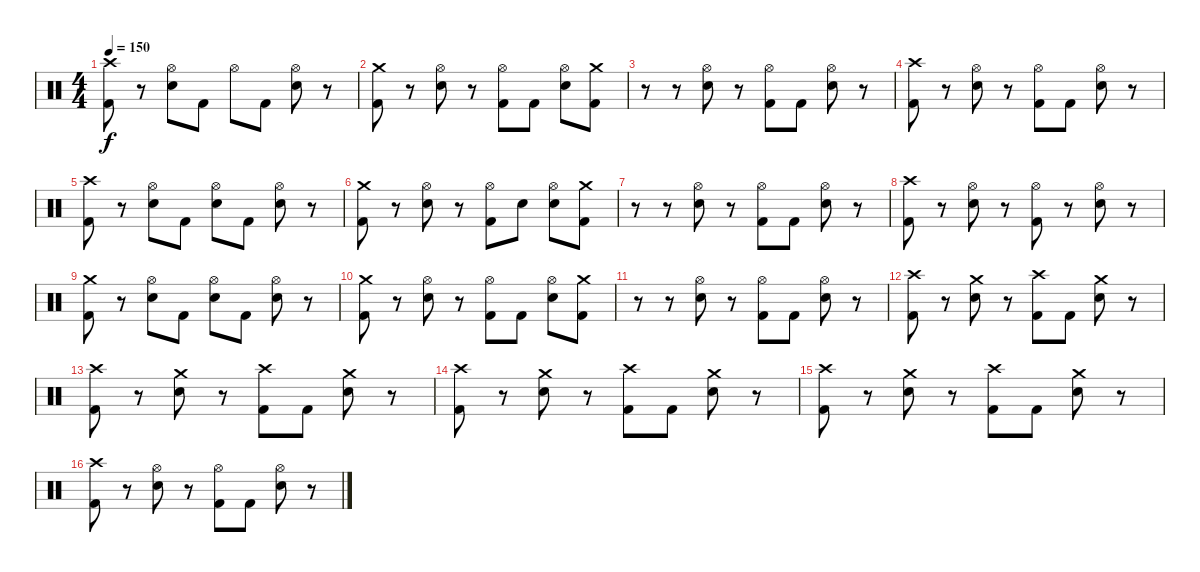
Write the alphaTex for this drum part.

\track "" {instrument percussion}
\staff {score}
\articulation defaults
\ts (4 4)
\tempo 150
\clef neutral
\ks c
("Crash high (hit)" "Kick (hit) 2").8{dy f} r.8 ("Hi-Hat (open)" "Electric Snare (hit)").8 "Kick (hit) 2".8 "Hi-Hat (open)".8 "Kick (hit) 2".8 ("Hi-Hat (open)" "Electric Snare (hit)").8 r.8 |
("Crash medium (hit)" "Kick (hit) 2").8 r.8 ("Hi-Hat (open)" "Electric Snare (hit)").8 r.8 ("Hi-Hat (open)" "Kick (hit) 2").8 "Kick (hit) 2".8 ("Hi-Hat (open)" "Electric Snare (hit)").8 ("Crash medium (hit)" "Kick (hit) 2").8 |
r.8 r.8 ("Hi-Hat (open)" "Electric Snare (hit)").8 r.8 ("Hi-Hat (open)" "Kick (hit) 2").8 "Kick (hit) 2".8 ("Hi-Hat (open)" "Electric Snare (hit)").8 r.8 |
("Crash high (hit)" "Kick (hit) 2").8 r.8 ("Hi-Hat (open)" "Electric Snare (hit)").8 r.8 ("Hi-Hat (open)" "Kick (hit) 2").8 "Kick (hit) 2".8 ("Hi-Hat (open)" "Electric Snare (hit)").8 r.8 |
("Crash high (hit)" "Kick (hit) 2").8 r.8 ("Hi-Hat (open)" "Electric Snare (hit)").8 "Kick (hit) 2".8 ("Hi-Hat (open)" "Electric Snare (hit)").8 "Kick (hit) 2".8 ("Hi-Hat (open)" "Electric Snare (hit)").8 r.8 |
("Crash medium (hit)" "Kick (hit) 2").8 r.8 ("Hi-Hat (open)" "Electric Snare (hit)").8 r.8 ("Hi-Hat (open)" "Kick (hit) 2").8 "Electric Snare (hit)".8 ("Hi-Hat (open)" "Electric Snare (hit)").8 ("Crash medium (hit)" "Kick (hit) 2").8 |
r.8 r.8 ("Hi-Hat (open)" "Electric Snare (hit)").8 r.8 ("Hi-Hat (open)" "Kick (hit) 2").8 "Kick (hit) 2".8 ("Hi-Hat (open)" "Electric Snare (hit)").8 r.8 |
("Crash high (hit)" "Kick (hit) 2").8 r.8 ("Hi-Hat (open)" "Electric Snare (hit)").8 r.8 ("Hi-Hat (open)" "Kick (hit) 2").8 r.8 ("Hi-Hat (open)" "Electric Snare (hit)").8 r.8 |
("Crash medium (hit)" "Kick (hit) 2").8 r.8 ("Hi-Hat (open)" "Electric Snare (hit)").8 "Kick (hit) 2".8 ("Hi-Hat (open)" "Electric Snare (hit)").8 "Kick (hit) 2".8 ("Hi-Hat (open)" "Electric Snare (hit)").8 r.8 |
("Crash medium (hit)" "Kick (hit) 2").8 r.8 ("Hi-Hat (open)" "Electric Snare (hit)").8 r.8 ("Hi-Hat (open)" "Kick (hit) 2").8 "Kick (hit) 2".8 ("Hi-Hat (open)" "Electric Snare (hit)").8 ("Crash medium (hit)" "Kick (hit) 2").8 |
r.8 r.8 ("Hi-Hat (open)" "Electric Snare (hit)").8 r.8 ("Hi-Hat (open)" "Kick (hit) 2").8 "Kick (hit) 2".8 ("Hi-Hat (open)" "Electric Snare (hit)").8 r.8 |
("Crash high (hit)" "Kick (hit) 2").8 r.8 ("Crash medium (hit)" "Electric Snare (hit)").8 r.8 ("Crash high (hit)" "Kick (hit) 2").8 "Kick (hit) 2".8 ("Crash medium (hit)" "Electric Snare (hit)").8 r.8 |
("Crash high (hit)" "Kick (hit) 2").8 r.8 ("Crash medium (hit)" "Electric Snare (hit)").8 r.8 ("Crash high (hit)" "Kick (hit) 2").8 "Kick (hit) 2".8 ("Crash medium (hit)" "Electric Snare (hit)").8 r.8 |
("Crash high (hit)" "Kick (hit) 2").8 r.8 ("Crash medium (hit)" "Electric Snare (hit)").8 r.8 ("Crash high (hit)" "Kick (hit) 2").8 "Kick (hit) 2".8 ("Crash medium (hit)" "Electric Snare (hit)").8 r.8 |
("Crash high (hit)" "Kick (hit) 2").8 r.8 ("Crash medium (hit)" "Electric Snare (hit)").8 r.8 ("Crash high (hit)" "Kick (hit) 2").8 "Kick (hit) 2".8 ("Crash medium (hit)" "Electric Snare (hit)").8 r.8 |
("Crash high (hit)" "Kick (hit) 2").8 r.8 ("Hi-Hat (open)" "Electric Snare (hit)").8 r.8 ("Hi-Hat (open)" "Kick (hit) 2").8 "Kick (hit) 2".8 ("Hi-Hat (open)" "Electric Snare (hit)").8 r.8
